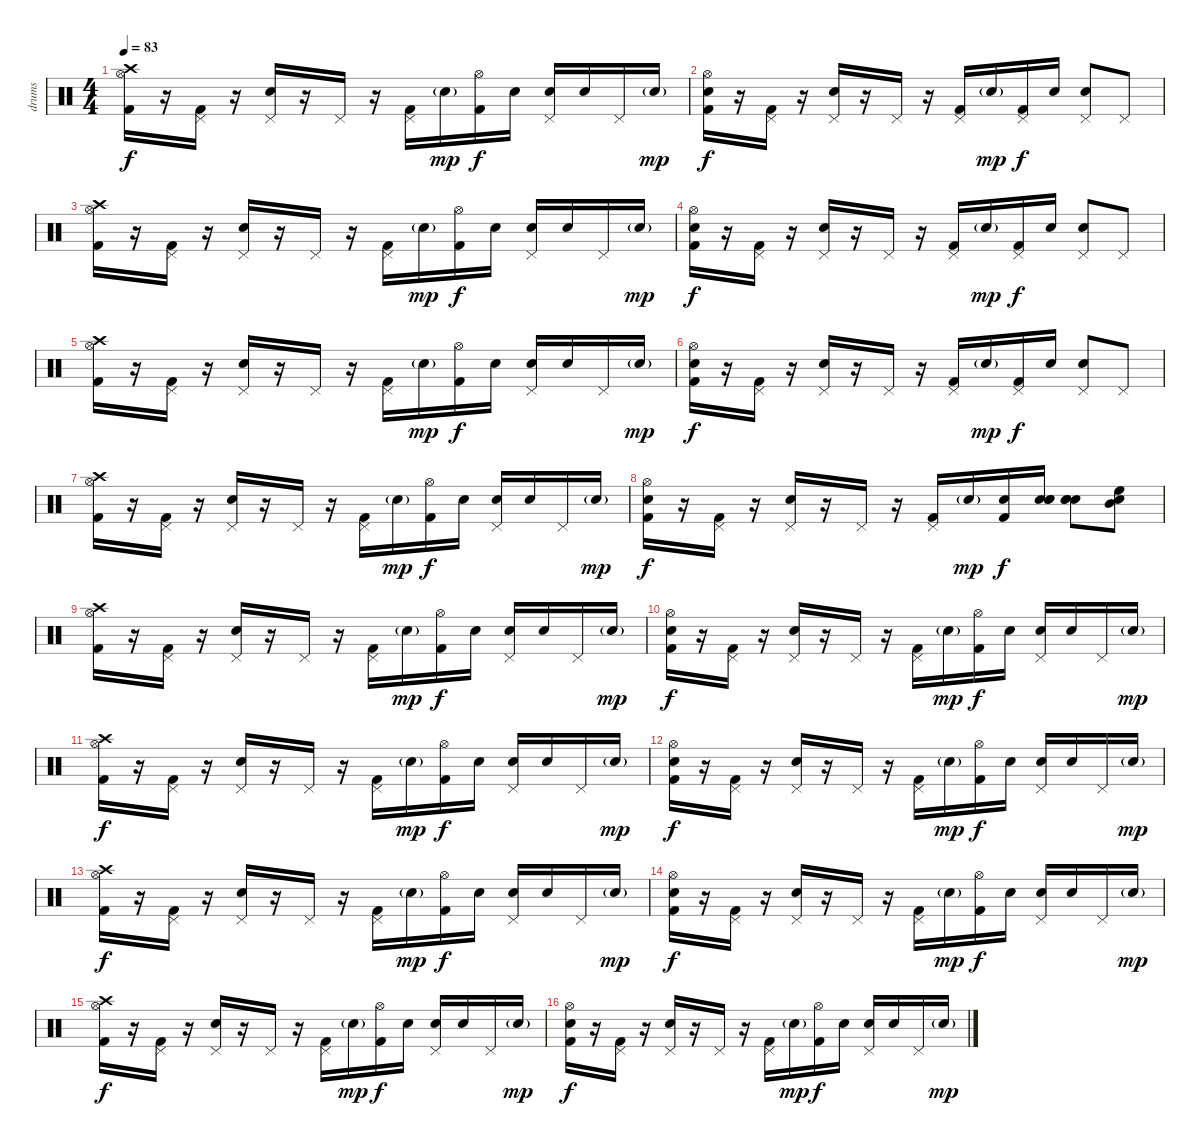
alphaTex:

\track ("drums" "drums") {instrument percussion}
\staff {score}
\articulation defaults
\ts (4 4)
\tempo 83
\clef neutral
\ks c
("Hi-Hat (open)" "Crash high (hit)" "Kick (hit) 2").16{dy f} r.16 ("Pedal Hi-Hat (hit)" "Kick (hit) 2").16 r.16 ("Pedal Hi-Hat (hit)" "Snare (hit) 2").16 r.16 "Pedal Hi-Hat (hit)".16 r.16 ("Pedal Hi-Hat (hit)" "Kick (hit) 2").16 "Snare (hit) 2"{g}.16{dy mp} ("Hi-Hat (open)" "Kick (hit) 2").16{dy f} "Snare (hit)".16 ("Pedal Hi-Hat (hit)" "Snare (hit) 2").16 "Snare (hit)".16 "Pedal Hi-Hat (hit)".16 "Snare (hit) 2"{g}.16{dy mp} |
("Hi-Hat (open)" "Snare (hit)" "Kick (hit) 2").16{dy f} r.16 ("Pedal Hi-Hat (hit)" "Kick (hit) 2").16 r.16 ("Pedal Hi-Hat (hit)" "Snare (hit) 2").16 r.16 "Pedal Hi-Hat (hit)".16 r.16 ("Pedal Hi-Hat (hit)" "Kick (hit) 2").16 "Snare (hit) 2"{g}.16{dy mp} ("Pedal Hi-Hat (hit)" "Kick (hit) 2").16{dy f} "Snare (hit)".16 ("Pedal Hi-Hat (hit)" "Snare (hit) 2").8 "Pedal Hi-Hat (hit)".8 |
("Hi-Hat (open)" "Crash high (hit)" "Kick (hit) 2").16 r.16 ("Pedal Hi-Hat (hit)" "Kick (hit) 2").16 r.16 ("Pedal Hi-Hat (hit)" "Snare (hit) 2").16 r.16 "Pedal Hi-Hat (hit)".16 r.16 ("Pedal Hi-Hat (hit)" "Kick (hit) 2").16 "Snare (hit) 2"{g}.16{dy mp} ("Hi-Hat (open)" "Kick (hit) 2").16{dy f} "Snare (hit)".16 ("Pedal Hi-Hat (hit)" "Snare (hit) 2").16 "Snare (hit)".16 "Pedal Hi-Hat (hit)".16 "Snare (hit) 2"{g}.16{dy mp} |
("Hi-Hat (open)" "Snare (hit)" "Kick (hit) 2").16{dy f} r.16 ("Pedal Hi-Hat (hit)" "Kick (hit) 2").16 r.16 ("Pedal Hi-Hat (hit)" "Snare (hit) 2").16 r.16 "Pedal Hi-Hat (hit)".16 r.16 ("Pedal Hi-Hat (hit)" "Kick (hit) 2").16 "Snare (hit) 2"{g}.16{dy mp} ("Pedal Hi-Hat (hit)" "Kick (hit) 2").16{dy f} "Snare (hit)".16 ("Pedal Hi-Hat (hit)" "Snare (hit) 2").8 "Pedal Hi-Hat (hit)".8 |
("Hi-Hat (open)" "Crash high (hit)" "Kick (hit) 2").16 r.16 ("Pedal Hi-Hat (hit)" "Kick (hit) 2").16 r.16 ("Pedal Hi-Hat (hit)" "Snare (hit) 2").16 r.16 "Pedal Hi-Hat (hit)".16 r.16 ("Pedal Hi-Hat (hit)" "Kick (hit) 2").16 "Snare (hit) 2"{g}.16{dy mp} ("Hi-Hat (open)" "Kick (hit) 2").16{dy f} "Snare (hit)".16 ("Pedal Hi-Hat (hit)" "Snare (hit) 2").16 "Snare (hit)".16 "Pedal Hi-Hat (hit)".16 "Snare (hit) 2"{g}.16{dy mp} |
("Hi-Hat (open)" "Snare (hit)" "Kick (hit) 2").16{dy f} r.16 ("Pedal Hi-Hat (hit)" "Kick (hit) 2").16 r.16 ("Pedal Hi-Hat (hit)" "Snare (hit) 2").16 r.16 "Pedal Hi-Hat (hit)".16 r.16 ("Pedal Hi-Hat (hit)" "Kick (hit) 2").16 "Snare (hit) 2"{g}.16{dy mp} ("Pedal Hi-Hat (hit)" "Kick (hit) 2").16{dy f} "Snare (hit)".16 ("Pedal Hi-Hat (hit)" "Snare (hit) 2").8 "Pedal Hi-Hat (hit)".8 |
("Hi-Hat (open)" "Crash high (hit)" "Kick (hit) 2").16 r.16 ("Pedal Hi-Hat (hit)" "Kick (hit) 2").16 r.16 ("Pedal Hi-Hat (hit)" "Snare (hit) 2").16 r.16 "Pedal Hi-Hat (hit)".16 r.16 ("Pedal Hi-Hat (hit)" "Kick (hit) 2").16 "Snare (hit) 2"{g}.16{dy mp} ("Hi-Hat (open)" "Kick (hit) 2").16{dy f} "Snare (hit)".16 ("Pedal Hi-Hat (hit)" "Snare (hit) 2").16 "Snare (hit)".16 "Pedal Hi-Hat (hit)".16 "Snare (hit) 2"{g}.16{dy mp} |
("Hi-Hat (open)" "Snare (hit)" "Kick (hit) 2").16{dy f} r.16 ("Pedal Hi-Hat (hit)" "Kick (hit) 2").16 r.16 ("Pedal Hi-Hat (hit)" "Snare (hit) 2").16 r.16 "Pedal Hi-Hat (hit)".16 r.16 ("Pedal Hi-Hat (hit)" "Kick (hit) 2").16 "Snare (hit) 2"{g}.16{dy mp} ("Snare (hit)" "Kick (hit) 2").16{dy f} ("Electric Snare (hit)" "Snare (hit) 2" "Snare (hit)").16 ("Snare (hit)" "Snare (hit)" "Snare (hit) 2").8 ("Snare (hit)" "High Floor Tom (hit)" "Mid Tom (hit)").8 |
("Hi-Hat (open)" "Crash high (hit)" "Kick (hit) 2").16 r.16 ("Pedal Hi-Hat (hit)" "Kick (hit) 2").16 r.16 ("Pedal Hi-Hat (hit)" "Snare (hit) 2").16 r.16 "Pedal Hi-Hat (hit)".16 r.16 ("Pedal Hi-Hat (hit)" "Kick (hit) 2").16 "Snare (hit) 2"{g}.16{dy mp} ("Hi-Hat (open)" "Kick (hit) 2").16{dy f} "Snare (hit)".16 ("Pedal Hi-Hat (hit)" "Snare (hit) 2").16 "Snare (hit)".16 "Pedal Hi-Hat (hit)".16 "Snare (hit) 2"{g}.16{dy mp} |
("Hi-Hat (open)" "Snare (hit)" "Kick (hit) 2").16{dy f} r.16 ("Pedal Hi-Hat (hit)" "Kick (hit) 2").16 r.16 ("Pedal Hi-Hat (hit)" "Snare (hit) 2").16 r.16 "Pedal Hi-Hat (hit)".16 r.16 ("Pedal Hi-Hat (hit)" "Kick (hit) 2").16 "Snare (hit) 2"{g}.16{dy mp} ("Hi-Hat (open)" "Kick (hit) 2").16{dy f} "Snare (hit)".16 ("Pedal Hi-Hat (hit)" "Snare (hit) 2").16 "Snare (hit)".16 "Pedal Hi-Hat (hit)".16 "Snare (hit) 2"{g}.16{dy mp} |
("Hi-Hat (open)" "Crash high (hit)" "Kick (hit) 2").16{dy f} r.16 ("Pedal Hi-Hat (hit)" "Kick (hit) 2").16 r.16 ("Pedal Hi-Hat (hit)" "Snare (hit) 2").16 r.16 "Pedal Hi-Hat (hit)".16 r.16 ("Pedal Hi-Hat (hit)" "Kick (hit) 2").16 "Snare (hit) 2"{g}.16{dy mp} ("Hi-Hat (open)" "Kick (hit) 2").16{dy f} "Snare (hit)".16 ("Pedal Hi-Hat (hit)" "Snare (hit) 2").16 "Snare (hit)".16 "Pedal Hi-Hat (hit)".16 "Snare (hit) 2"{g}.16{dy mp} |
("Hi-Hat (open)" "Snare (hit)" "Kick (hit) 2").16{dy f} r.16 ("Pedal Hi-Hat (hit)" "Kick (hit) 2").16 r.16 ("Pedal Hi-Hat (hit)" "Snare (hit) 2").16 r.16 "Pedal Hi-Hat (hit)".16 r.16 ("Pedal Hi-Hat (hit)" "Kick (hit) 2").16 "Snare (hit) 2"{g}.16{dy mp} ("Hi-Hat (open)" "Kick (hit) 2").16{dy f} "Snare (hit)".16 ("Pedal Hi-Hat (hit)" "Snare (hit) 2").16 "Snare (hit)".16 "Pedal Hi-Hat (hit)".16 "Snare (hit) 2"{g}.16{dy mp} |
("Hi-Hat (open)" "Crash high (hit)" "Kick (hit) 2").16{dy f} r.16 ("Pedal Hi-Hat (hit)" "Kick (hit) 2").16 r.16 ("Pedal Hi-Hat (hit)" "Snare (hit) 2").16 r.16 "Pedal Hi-Hat (hit)".16 r.16 ("Pedal Hi-Hat (hit)" "Kick (hit) 2").16 "Snare (hit) 2"{g}.16{dy mp} ("Hi-Hat (open)" "Kick (hit) 2").16{dy f} "Snare (hit)".16 ("Pedal Hi-Hat (hit)" "Snare (hit) 2").16 "Snare (hit)".16 "Pedal Hi-Hat (hit)".16 "Snare (hit) 2"{g}.16{dy mp} |
("Hi-Hat (open)" "Snare (hit)" "Kick (hit) 2").16{dy f} r.16 ("Pedal Hi-Hat (hit)" "Kick (hit) 2").16 r.16 ("Pedal Hi-Hat (hit)" "Snare (hit) 2").16 r.16 "Pedal Hi-Hat (hit)".16 r.16 ("Pedal Hi-Hat (hit)" "Kick (hit) 2").16 "Snare (hit) 2"{g}.16{dy mp} ("Hi-Hat (open)" "Kick (hit) 2").16{dy f} "Snare (hit)".16 ("Pedal Hi-Hat (hit)" "Snare (hit) 2").16 "Snare (hit)".16 "Pedal Hi-Hat (hit)".16 "Snare (hit) 2"{g}.16{dy mp} |
("Hi-Hat (open)" "Crash high (hit)" "Kick (hit) 2").16{dy f} r.16 ("Pedal Hi-Hat (hit)" "Kick (hit) 2").16 r.16 ("Pedal Hi-Hat (hit)" "Snare (hit) 2").16 r.16 "Pedal Hi-Hat (hit)".16 r.16 ("Pedal Hi-Hat (hit)" "Kick (hit) 2").16 "Snare (hit) 2"{g}.16{dy mp} ("Hi-Hat (open)" "Kick (hit) 2").16{dy f} "Snare (hit)".16 ("Pedal Hi-Hat (hit)" "Snare (hit) 2").16 "Snare (hit)".16 "Pedal Hi-Hat (hit)".16 "Snare (hit) 2"{g}.16{dy mp} |
("Hi-Hat (open)" "Snare (hit)" "Kick (hit) 2").16{dy f} r.16 ("Pedal Hi-Hat (hit)" "Kick (hit) 2").16 r.16 ("Pedal Hi-Hat (hit)" "Snare (hit) 2").16 r.16 "Pedal Hi-Hat (hit)".16 r.16 ("Pedal Hi-Hat (hit)" "Kick (hit) 2").16 "Snare (hit) 2"{g}.16{dy mp} ("Hi-Hat (open)" "Kick (hit) 2").16{dy f} "Snare (hit)".16 ("Pedal Hi-Hat (hit)" "Snare (hit) 2").16 "Snare (hit)".16 "Pedal Hi-Hat (hit)".16 "Snare (hit) 2"{g}.16{dy mp}
